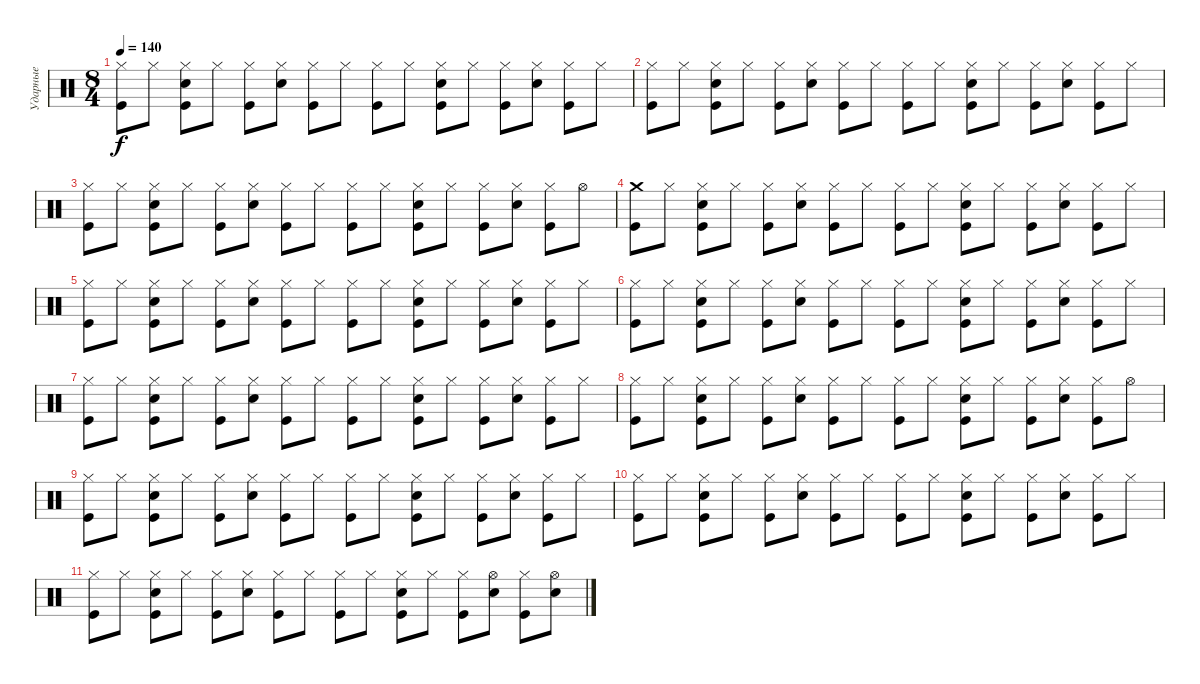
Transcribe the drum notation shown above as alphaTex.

\track ("Ударные" "Ударные") {instrument percussion}
\staff {score}
\articulation defaults
\ts (8 4)
\tempo 140
\clef neutral
\ks c
("Hi-Hat (closed)" "Kick (hit)").8{dy f} "Hi-Hat (closed)".8 ("Hi-Hat (closed)" "Electric Snare (hit)" "Kick (hit)").8 "Hi-Hat (closed)".8 ("Hi-Hat (closed)" "Kick (hit)").8 ("Hi-Hat (closed)" "Electric Snare (hit)").8 ("Hi-Hat (closed)" "Kick (hit)").8 "Hi-Hat (closed)".8 ("Hi-Hat (closed)" "Kick (hit)").8 "Hi-Hat (closed)".8 ("Hi-Hat (closed)" "Electric Snare (hit)" "Kick (hit)").8 "Hi-Hat (closed)".8 ("Hi-Hat (closed)" "Kick (hit)").8 ("Hi-Hat (closed)" "Electric Snare (hit)").8 ("Hi-Hat (closed)" "Kick (hit)").8 "Hi-Hat (closed)".8 |
("Hi-Hat (closed)" "Kick (hit)").8 "Hi-Hat (closed)".8 ("Hi-Hat (closed)" "Electric Snare (hit)" "Kick (hit)").8 "Hi-Hat (closed)".8 ("Hi-Hat (closed)" "Kick (hit)").8 ("Hi-Hat (closed)" "Electric Snare (hit)").8 ("Hi-Hat (closed)" "Kick (hit)").8 "Hi-Hat (closed)".8 ("Hi-Hat (closed)" "Kick (hit)").8 "Hi-Hat (closed)".8 ("Hi-Hat (closed)" "Electric Snare (hit)" "Kick (hit)").8 "Hi-Hat (closed)".8 ("Hi-Hat (closed)" "Kick (hit)").8 ("Hi-Hat (closed)" "Electric Snare (hit)").8 ("Hi-Hat (closed)" "Kick (hit)").8 "Hi-Hat (closed)".8 |
("Hi-Hat (closed)" "Kick (hit)").8 "Hi-Hat (closed)".8 ("Hi-Hat (closed)" "Electric Snare (hit)" "Kick (hit)").8 "Hi-Hat (closed)".8 ("Hi-Hat (closed)" "Kick (hit)").8 ("Hi-Hat (closed)" "Electric Snare (hit)").8 ("Hi-Hat (closed)" "Kick (hit)").8 "Hi-Hat (closed)".8 ("Hi-Hat (closed)" "Kick (hit)").8 "Hi-Hat (closed)".8 ("Hi-Hat (closed)" "Electric Snare (hit)" "Kick (hit)").8 "Hi-Hat (closed)".8 ("Hi-Hat (closed)" "Kick (hit)").8 ("Hi-Hat (closed)" "Electric Snare (hit)").8 ("Hi-Hat (closed)" "Kick (hit)").8 "Hi-Hat (open)".8 |
("Crash medium (hit)" "Kick (hit)").8 "Hi-Hat (closed)".8 ("Hi-Hat (closed)" "Electric Snare (hit)" "Kick (hit)").8 "Hi-Hat (closed)".8 ("Hi-Hat (closed)" "Kick (hit)").8 ("Hi-Hat (closed)" "Electric Snare (hit)").8 ("Hi-Hat (closed)" "Kick (hit)").8 "Hi-Hat (closed)".8 ("Hi-Hat (closed)" "Kick (hit)").8 "Hi-Hat (closed)".8 ("Hi-Hat (closed)" "Electric Snare (hit)" "Kick (hit)").8 "Hi-Hat (closed)".8 ("Hi-Hat (closed)" "Kick (hit)").8 ("Hi-Hat (closed)" "Electric Snare (hit)").8 ("Hi-Hat (closed)" "Kick (hit)").8 "Hi-Hat (closed)".8 |
("Hi-Hat (closed)" "Kick (hit)").8 "Hi-Hat (closed)".8 ("Hi-Hat (closed)" "Electric Snare (hit)" "Kick (hit)").8 "Hi-Hat (closed)".8 ("Hi-Hat (closed)" "Kick (hit)").8 ("Hi-Hat (closed)" "Electric Snare (hit)").8 ("Hi-Hat (closed)" "Kick (hit)").8 "Hi-Hat (closed)".8 ("Hi-Hat (closed)" "Kick (hit)").8 "Hi-Hat (closed)".8 ("Hi-Hat (closed)" "Electric Snare (hit)" "Kick (hit)").8 "Hi-Hat (closed)".8 ("Hi-Hat (closed)" "Kick (hit)").8 ("Hi-Hat (closed)" "Electric Snare (hit)").8 ("Hi-Hat (closed)" "Kick (hit)").8 "Hi-Hat (closed)".8 |
("Hi-Hat (closed)" "Kick (hit)").8 "Hi-Hat (closed)".8 ("Hi-Hat (closed)" "Electric Snare (hit)" "Kick (hit)").8 "Hi-Hat (closed)".8 ("Hi-Hat (closed)" "Kick (hit)").8 ("Hi-Hat (closed)" "Electric Snare (hit)").8 ("Hi-Hat (closed)" "Kick (hit)").8 "Hi-Hat (closed)".8 ("Hi-Hat (closed)" "Kick (hit)").8 "Hi-Hat (closed)".8 ("Hi-Hat (closed)" "Electric Snare (hit)" "Kick (hit)").8 "Hi-Hat (closed)".8 ("Hi-Hat (closed)" "Kick (hit)").8 ("Hi-Hat (closed)" "Electric Snare (hit)").8 ("Hi-Hat (closed)" "Kick (hit)").8 "Hi-Hat (closed)".8 |
("Hi-Hat (closed)" "Kick (hit)").8 "Hi-Hat (closed)".8 ("Hi-Hat (closed)" "Electric Snare (hit)" "Kick (hit)").8 "Hi-Hat (closed)".8 ("Hi-Hat (closed)" "Kick (hit)").8 ("Hi-Hat (closed)" "Electric Snare (hit)").8 ("Hi-Hat (closed)" "Kick (hit)").8 "Hi-Hat (closed)".8 ("Hi-Hat (closed)" "Kick (hit)").8 "Hi-Hat (closed)".8 ("Hi-Hat (closed)" "Electric Snare (hit)" "Kick (hit)").8 "Hi-Hat (closed)".8 ("Hi-Hat (closed)" "Kick (hit)").8 ("Hi-Hat (closed)" "Electric Snare (hit)").8 ("Hi-Hat (closed)" "Kick (hit)").8 "Hi-Hat (closed)".8 |
("Hi-Hat (closed)" "Kick (hit)").8 "Hi-Hat (closed)".8 ("Hi-Hat (closed)" "Electric Snare (hit)" "Kick (hit)").8 "Hi-Hat (closed)".8 ("Hi-Hat (closed)" "Kick (hit)").8 ("Hi-Hat (closed)" "Electric Snare (hit)").8 ("Hi-Hat (closed)" "Kick (hit)").8 "Hi-Hat (closed)".8 ("Hi-Hat (closed)" "Kick (hit)").8 "Hi-Hat (closed)".8 ("Hi-Hat (closed)" "Electric Snare (hit)" "Kick (hit)").8 "Hi-Hat (closed)".8 ("Hi-Hat (closed)" "Kick (hit)").8 ("Hi-Hat (closed)" "Electric Snare (hit)").8 ("Hi-Hat (closed)" "Kick (hit)").8 "Hi-Hat (open)".8 |
("Hi-Hat (closed)" "Kick (hit)").8 "Hi-Hat (closed)".8 ("Hi-Hat (closed)" "Electric Snare (hit)" "Kick (hit)").8 "Hi-Hat (closed)".8 ("Hi-Hat (closed)" "Kick (hit)").8 ("Hi-Hat (closed)" "Electric Snare (hit)").8 ("Hi-Hat (closed)" "Kick (hit)").8 "Hi-Hat (closed)".8 ("Hi-Hat (closed)" "Kick (hit)").8 "Hi-Hat (closed)".8 ("Hi-Hat (closed)" "Electric Snare (hit)" "Kick (hit)").8 "Hi-Hat (closed)".8 ("Hi-Hat (closed)" "Kick (hit)").8 ("Hi-Hat (closed)" "Electric Snare (hit)").8 ("Hi-Hat (closed)" "Kick (hit)").8 "Hi-Hat (closed)".8 |
("Hi-Hat (closed)" "Kick (hit)").8 "Hi-Hat (closed)".8 ("Hi-Hat (closed)" "Electric Snare (hit)" "Kick (hit)").8 "Hi-Hat (closed)".8 ("Hi-Hat (closed)" "Kick (hit)").8 ("Hi-Hat (closed)" "Electric Snare (hit)").8 ("Hi-Hat (closed)" "Kick (hit)").8 "Hi-Hat (closed)".8 ("Hi-Hat (closed)" "Kick (hit)").8 "Hi-Hat (closed)".8 ("Hi-Hat (closed)" "Electric Snare (hit)" "Kick (hit)").8 "Hi-Hat (closed)".8 ("Hi-Hat (closed)" "Kick (hit)").8 ("Hi-Hat (closed)" "Electric Snare (hit)").8 ("Hi-Hat (closed)" "Kick (hit)").8 "Hi-Hat (closed)".8 |
("Hi-Hat (closed)" "Kick (hit)").8 "Hi-Hat (closed)".8 ("Hi-Hat (closed)" "Electric Snare (hit)" "Kick (hit)").8 "Hi-Hat (closed)".8 ("Hi-Hat (closed)" "Kick (hit)").8 ("Hi-Hat (closed)" "Electric Snare (hit)").8 ("Hi-Hat (closed)" "Kick (hit)").8 "Hi-Hat (closed)".8 ("Hi-Hat (closed)" "Kick (hit)").8 "Hi-Hat (closed)".8 ("Hi-Hat (closed)" "Electric Snare (hit)" "Kick (hit)").8 "Hi-Hat (closed)".8 ("Hi-Hat (closed)" "Kick (hit)").8 ("Hi-Hat (open)" "Electric Snare (hit)").8 ("Hi-Hat (closed)" "Kick (hit)").8 ("Hi-Hat (open)" "Electric Snare (hit)").8
